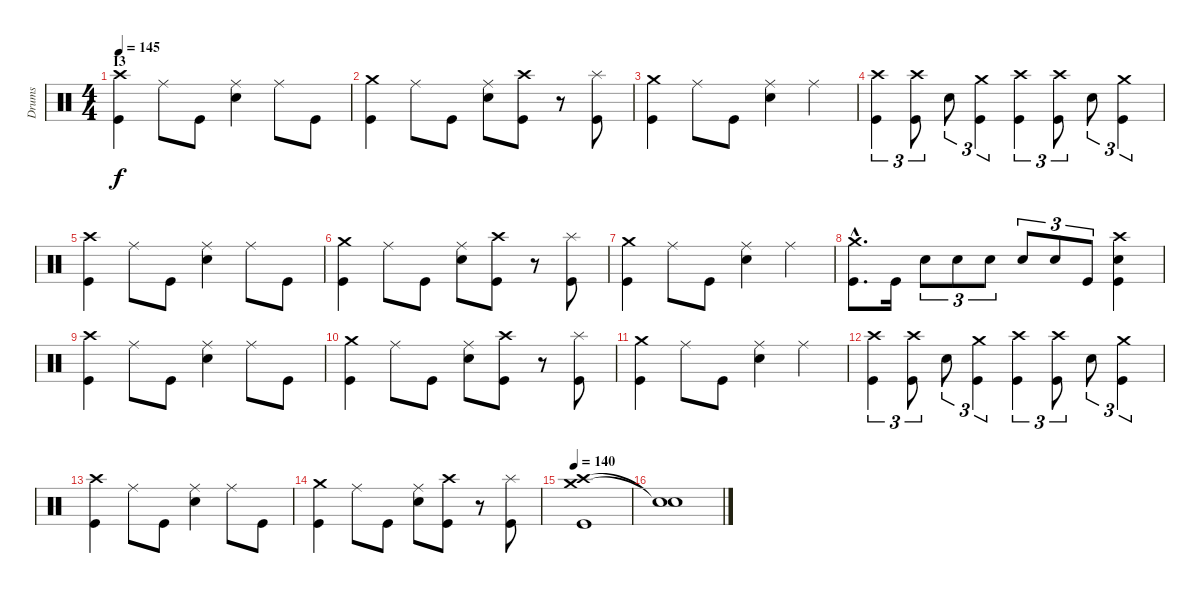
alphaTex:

\track ("Drums" "Drums") {instrument percussion}
\staff {score}
\articulation defaults
\ts (4 4)
\section ("" "I3")
\tempo 145
\clef neutral
\ks c
("Crash high (hit)" "Kick (hit)").4{dy f} "Ride (middle)".8 "Kick (hit)".8 ("Ride (middle)" "Snare (hit) 2").4 "Ride (middle)".8 "Kick (hit)".8 |
("Crash medium (hit)" "Kick (hit)").4 "Ride (middle)".8 "Kick (hit)".8 ("Ride (middle)" "Snare (hit) 2").8 ("Crash high (hit)" "Kick (hit)").8 r.8 ("Splash (hit)" "Kick (hit)").8 |
("Crash medium (hit)" "Kick (hit)").4 "Ride (middle)".8 "Kick (hit)".8 ("Ride (middle)" "Snare (hit) 2").4 "Ride (middle)".4 |
("Crash high (hit)" "Kick (hit)").4{tu (3 2)} ("Crash high (hit)" "Kick (hit)").8{tu (3 2)} "Snare (hit) 2".8{tu (3 2)} ("Crash medium (hit)" "Kick (hit)").4{tu (3 2)} ("Crash high (hit)" "Kick (hit)").4{tu (3 2)} ("Crash high (hit)" "Kick (hit)").8{tu (3 2)} "Snare (hit) 2".8{tu (3 2)} ("Crash medium (hit)" "Kick (hit)").4{tu (3 2)} |
("Crash high (hit)" "Kick (hit)").4 "Ride (middle)".8 "Kick (hit)".8 ("Ride (middle)" "Snare (hit) 2").4 "Ride (middle)".8 "Kick (hit)".8 |
("Crash medium (hit)" "Kick (hit)").4 "Ride (middle)".8 "Kick (hit)".8 ("Ride (middle)" "Snare (hit) 2").8 ("Crash high (hit)" "Kick (hit)").8 r.8 ("Splash (hit)" "Kick (hit)").8 |
("Crash medium (hit)" "Kick (hit)").4 "Ride (middle)".8 "Kick (hit)".8 ("Ride (middle)" "Snare (hit) 2").4 "Ride (middle)".4 |
("Crash medium (hit)"{hac} "Kick (hit)"{hac}).8{d} "Kick (hit)".16 "Snare (hit) 2".8{tu (3 2)} "Snare (hit) 2".8{tu (3 2)} "Snare (hit) 2".8{tu (3 2)} "Snare (hit) 2".8{tu (3 2)} "Snare (hit) 2".8{tu (3 2)} "Kick (hit)".8{tu (3 2)} ("Crash high (hit)" "Snare (hit) 2" "Kick (hit)").4 |
("Crash high (hit)" "Kick (hit)").4 "Ride (middle)".8 "Kick (hit)".8 ("Ride (middle)" "Snare (hit) 2").4 "Ride (middle)".8 "Kick (hit)".8 |
("Crash medium (hit)" "Kick (hit)").4 "Ride (middle)".8 "Kick (hit)".8 ("Ride (middle)" "Snare (hit) 2").8 ("Crash high (hit)" "Kick (hit)").8 r.8 ("Splash (hit)" "Kick (hit)").8 |
("Crash medium (hit)" "Kick (hit)").4 "Ride (middle)".8 "Kick (hit)".8 ("Ride (middle)" "Snare (hit) 2").4 "Ride (middle)".4 |
("Crash high (hit)" "Kick (hit)").4{tu (3 2)} ("Crash high (hit)" "Kick (hit)").8{tu (3 2)} "Snare (hit) 2".8{tu (3 2)} ("Crash medium (hit)" "Kick (hit)").4{tu (3 2)} ("Crash high (hit)" "Kick (hit)").4{tu (3 2)} ("Crash high (hit)" "Kick (hit)").8{tu (3 2)} "Snare (hit) 2".8{tu (3 2)} ("Crash medium (hit)" "Kick (hit)").4{tu (3 2)} |
("Crash high (hit)" "Kick (hit)").4 "Ride (middle)".8 "Kick (hit)".8 ("Ride (middle)" "Snare (hit) 2").4 "Ride (middle)".8 "Kick (hit)".8 |
("Crash medium (hit)" "Kick (hit)").4 "Ride (middle)".8 "Kick (hit)".8 ("Ride (middle)" "Snare (hit) 2").8 ("Crash high (hit)" "Kick (hit)").8 r.8 ("Splash (hit)" "Kick (hit)").8 |
\tempo 140
("Crash medium (hit)" "Crash high (hit)" "Kick (hit)").1 |
("Snare (hit)"{t} "Snare (hit)"{t}).1
